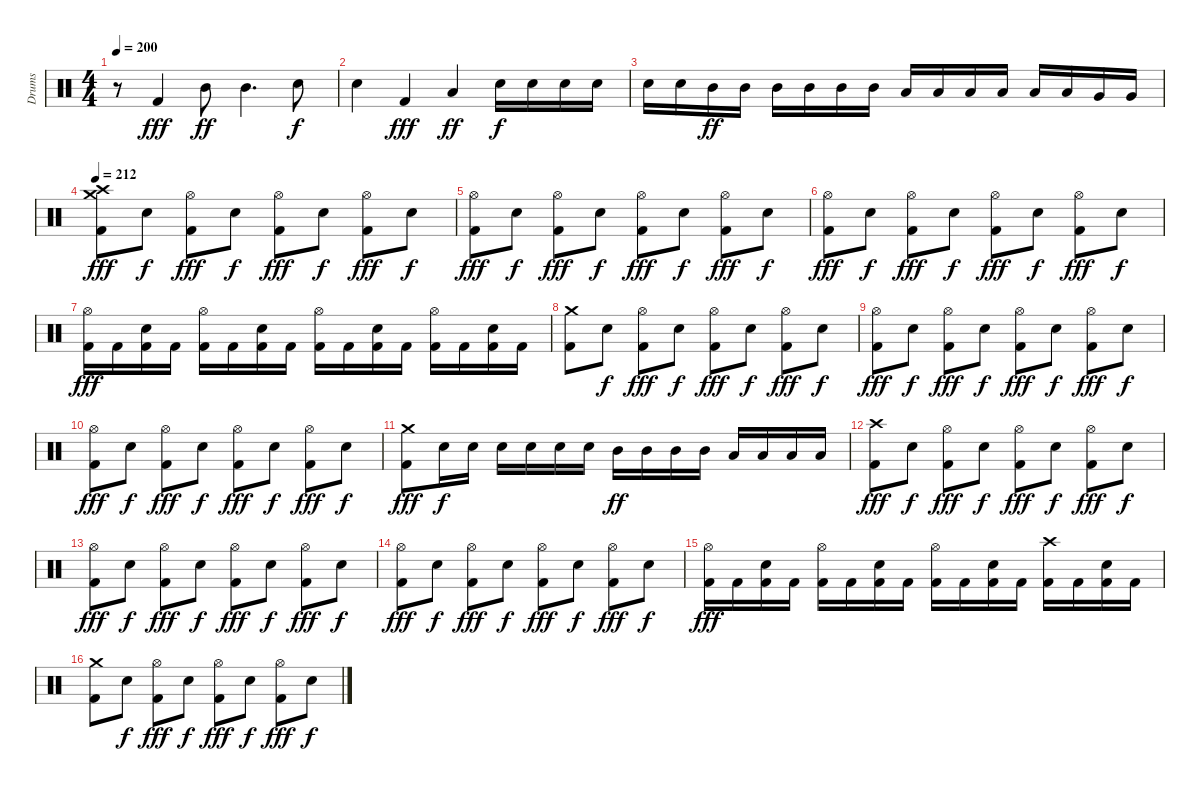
\track ("Drums" "Drums") {instrument percussion}
\staff {score}
\articulation defaults
\ts (4 4)
\tempo 200
\clef neutral
\ks c
r.8{dy fff} "Kick (hit) 2".4 "Mid Tom (hit)".8{dy ff} "Mid Tom (hit)".4{d} "Snare (hit) 2".8{dy f} |
"Snare (hit) 2".4 "Kick (hit) 2".4{dy fff} "Low Tom (hit)".4{dy ff} "Snare (hit) 2".16{dy f} "Snare (hit) 2".16 "Snare (hit) 2".16 "Snare (hit) 2".16 |
"Snare (hit) 2".16 "Snare (hit) 2".16 "Mid Tom (hit)".16{dy ff} "Mid Tom (hit)".16 "Mid Tom (hit)".16 "Mid Tom (hit)".16 "Mid Tom (hit)".16 "Mid Tom (hit)".16 "Low Tom (hit)".16 "Low Tom (hit)".16 "Low Tom (hit)".16 "Low Tom (hit)".16 "Low Tom (hit)".16 "Low Tom (hit)".16 "Very Low Tom (hit)".16 "Very Low Tom (hit)".16 |
\tempo 212
("Crash medium (hit)" "Crash high (hit)" "Kick (hit) 2").8{dy fff} "Snare (hit) 2".8{dy f} ("Hi-Hat (open)" "Kick (hit) 2").8{dy fff} "Snare (hit) 2".8{dy f} ("Hi-Hat (open)" "Kick (hit) 2").8{dy fff} "Snare (hit) 2".8{dy f} ("Hi-Hat (open)" "Kick (hit) 2").8{dy fff} "Snare (hit) 2".8{dy f} |
("Hi-Hat (open)" "Kick (hit) 2").8{dy fff} "Snare (hit) 2".8{dy f} ("Hi-Hat (open)" "Kick (hit) 2").8{dy fff} "Snare (hit) 2".8{dy f} ("Hi-Hat (open)" "Kick (hit) 2").8{dy fff} "Snare (hit) 2".8{dy f} ("Hi-Hat (open)" "Kick (hit) 2").8{dy fff} "Snare (hit) 2".8{dy f} |
("Hi-Hat (open)" "Kick (hit) 2").8{dy fff} "Snare (hit) 2".8{dy f} ("Hi-Hat (open)" "Kick (hit) 2").8{dy fff} "Snare (hit) 2".8{dy f} ("Hi-Hat (open)" "Kick (hit) 2").8{dy fff} "Snare (hit) 2".8{dy f} ("Hi-Hat (open)" "Kick (hit) 2").8{dy fff} "Snare (hit) 2".8{dy f} |
("Hi-Hat (open)" "Kick (hit) 2").16{dy fff} "Kick (hit) 2".16 ("Snare (hit) 2" "Kick (hit) 2").16 "Kick (hit) 2".16 ("Hi-Hat (open)" "Kick (hit) 2").16 "Kick (hit) 2".16 ("Snare (hit) 2" "Kick (hit) 2").16 "Kick (hit) 2".16 ("Hi-Hat (open)" "Kick (hit) 2").16 "Kick (hit) 2".16 ("Snare (hit) 2" "Kick (hit) 2").16 "Kick (hit) 2".16 ("Hi-Hat (open)" "Kick (hit) 2").16 "Kick (hit) 2".16 ("Snare (hit) 2" "Kick (hit) 2").16 "Kick (hit) 2".16 |
("Crash medium (hit)" "Kick (hit) 2").8 "Snare (hit) 2".8{dy f} ("Hi-Hat (open)" "Kick (hit) 2").8{dy fff} "Snare (hit) 2".8{dy f} ("Hi-Hat (open)" "Kick (hit) 2").8{dy fff} "Snare (hit) 2".8{dy f} ("Hi-Hat (open)" "Kick (hit) 2").8{dy fff} "Snare (hit) 2".8{dy f} |
("Hi-Hat (open)" "Kick (hit) 2").8{dy fff} "Snare (hit) 2".8{dy f} ("Hi-Hat (open)" "Kick (hit) 2").8{dy fff} "Snare (hit) 2".8{dy f} ("Hi-Hat (open)" "Kick (hit) 2").8{dy fff} "Snare (hit) 2".8{dy f} ("Hi-Hat (open)" "Kick (hit) 2").8{dy fff} "Snare (hit) 2".8{dy f} |
("Hi-Hat (open)" "Kick (hit) 2").8{dy fff} "Snare (hit) 2".8{dy f} ("Hi-Hat (open)" "Kick (hit) 2").8{dy fff} "Snare (hit) 2".8{dy f} ("Hi-Hat (open)" "Kick (hit) 2").8{dy fff} "Snare (hit) 2".8{dy f} ("Hi-Hat (open)" "Kick (hit) 2").8{dy fff} "Snare (hit) 2".8{dy f} |
("Crash medium (hit)" "Kick (hit) 2").8{dy fff} "Snare (hit) 2".16{dy f} "Snare (hit) 2".16 "Snare (hit) 2".16 "Snare (hit) 2".16 "Snare (hit) 2".16 "Snare (hit) 2".16 "Mid Tom (hit)".16{dy ff} "Mid Tom (hit)".16 "Mid Tom (hit)".16 "Mid Tom (hit)".16 "Low Tom (hit)".16 "Low Tom (hit)".16 "Low Tom (hit)".16 "Low Tom (hit)".16 |
("Crash high (hit)" "Kick (hit) 2").8{dy fff} "Snare (hit) 2".8{dy f} ("Hi-Hat (open)" "Kick (hit) 2").8{dy fff} "Snare (hit) 2".8{dy f} ("Hi-Hat (open)" "Kick (hit) 2").8{dy fff} "Snare (hit) 2".8{dy f} ("Hi-Hat (open)" "Kick (hit) 2").8{dy fff} "Snare (hit) 2".8{dy f} |
("Hi-Hat (open)" "Kick (hit) 2").8{dy fff} "Snare (hit) 2".8{dy f} ("Hi-Hat (open)" "Kick (hit) 2").8{dy fff} "Snare (hit) 2".8{dy f} ("Hi-Hat (open)" "Kick (hit) 2").8{dy fff} "Snare (hit) 2".8{dy f} ("Hi-Hat (open)" "Kick (hit) 2").8{dy fff} "Snare (hit) 2".8{dy f} |
("Hi-Hat (open)" "Kick (hit) 2").8{dy fff} "Snare (hit) 2".8{dy f} ("Hi-Hat (open)" "Kick (hit) 2").8{dy fff} "Snare (hit) 2".8{dy f} ("Hi-Hat (open)" "Kick (hit) 2").8{dy fff} "Snare (hit) 2".8{dy f} ("Hi-Hat (open)" "Kick (hit) 2").8{dy fff} "Snare (hit) 2".8{dy f} |
("Hi-Hat (open)" "Kick (hit) 2").16{dy fff} "Kick (hit) 2".16 ("Snare (hit) 2" "Kick (hit) 2").16 "Kick (hit) 2".16 ("Hi-Hat (open)" "Kick (hit) 2").16 "Kick (hit) 2".16 ("Snare (hit) 2" "Kick (hit) 2").16 "Kick (hit) 2".16 ("Hi-Hat (open)" "Kick (hit) 2").16 "Kick (hit) 2".16 ("Snare (hit) 2" "Kick (hit) 2").16 "Kick (hit) 2".16 ("Crash high (hit)" "Kick (hit) 2").16 "Kick (hit) 2".16 ("Snare (hit) 2" "Kick (hit) 2").16 "Kick (hit) 2".16 |
("Crash medium (hit)" "Kick (hit) 2").8 "Snare (hit) 2".8{dy f} ("Hi-Hat (open)" "Kick (hit) 2").8{dy fff} "Snare (hit) 2".8{dy f} ("Hi-Hat (open)" "Kick (hit) 2").8{dy fff} "Snare (hit) 2".8{dy f} ("Hi-Hat (open)" "Kick (hit) 2").8{dy fff} "Snare (hit) 2".8{dy f}
